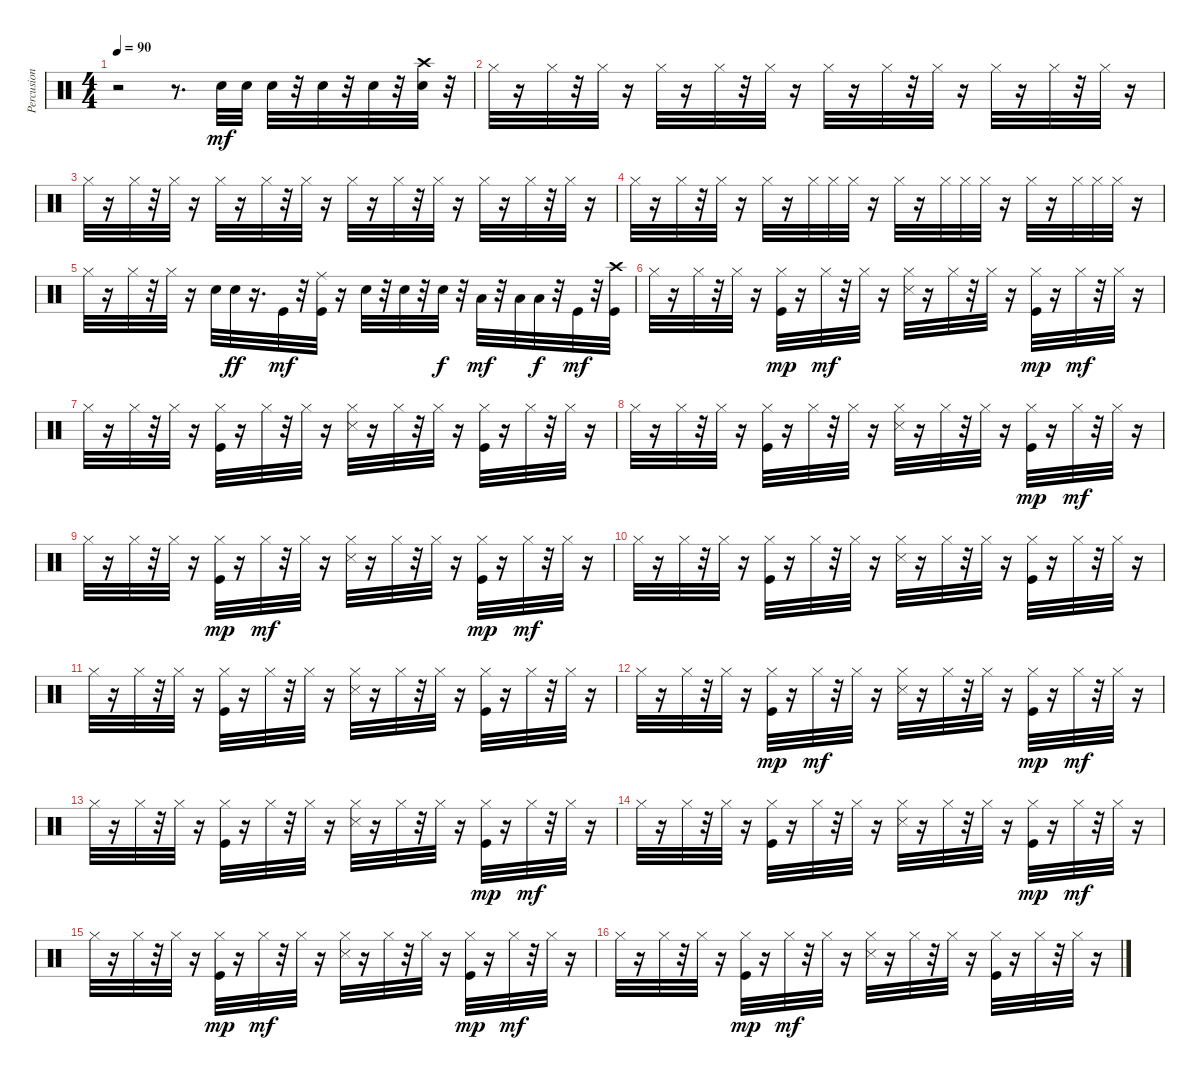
\track ("Percusion" "Percusion") {instrument percussion}
\staff {score}
\articulation defaults
\ts (4 4)
\tempo 90
\clef neutral
\ks c
r.2{dy mf} r.8{d} "Snare (hit) 2".32 "Snare (hit) 2".32 "Snare (hit) 2".32 r.32 "Snare (hit) 2".32 r.32 "Snare (hit) 2".32 r.32 ("Snare (hit) 2" "Crash high (hit)").32 r.32 |
"Hi-Hat (closed)".32 r.16 "Hi-Hat (closed)".32 r.32 "Hi-Hat (closed)".32 r.16 "Hi-Hat (closed)".32 r.16 "Hi-Hat (closed)".32 r.32 "Hi-Hat (closed)".32 r.16 "Hi-Hat (closed)".32 r.16 "Hi-Hat (closed)".32 r.32 "Hi-Hat (closed)".32 r.16 "Hi-Hat (closed)".32 r.16 "Hi-Hat (closed)".32 r.32 "Hi-Hat (closed)".32 r.16 |
"Hi-Hat (closed)".32 r.16 "Hi-Hat (closed)".32 r.32 "Hi-Hat (closed)".32 r.16 "Hi-Hat (closed)".32 r.16 "Hi-Hat (closed)".32 r.32 "Hi-Hat (closed)".32 r.16 "Hi-Hat (closed)".32 r.16 "Hi-Hat (closed)".32 r.32 "Hi-Hat (closed)".32 r.16 "Hi-Hat (closed)".32 r.16 "Hi-Hat (closed)".32 r.32 "Hi-Hat (closed)".32 r.16 |
"Hi-Hat (closed)".32 r.16 "Hi-Hat (closed)".32 r.32 "Hi-Hat (closed)".32 r.16 "Hi-Hat (closed)".32 r.16 "Hi-Hat (closed)".32 "Hi-Hat (closed)".32 "Hi-Hat (closed)".32 r.16 "Hi-Hat (closed)".32 r.16 "Hi-Hat (closed)".32 "Hi-Hat (closed)".32 "Hi-Hat (closed)".32 r.16 "Hi-Hat (closed)".32 r.16 "Hi-Hat (closed)".32 "Hi-Hat (closed)".32 "Hi-Hat (closed)".32 r.16 |
"Hi-Hat (closed)".32 r.16 "Hi-Hat (closed)".32 r.32 "Hi-Hat (closed)".32 r.16 "Snare (hit) 2".32 "Snare (hit) 2".32{dy ff} r.16{d} "Kick (hit)".32{dy mf} r.32 ("Ride (middle)" "Kick (hit)").32 r.16 "Snare (hit) 2".32 r.32 "Snare (hit) 2".32 r.32 "Snare (hit) 2".32{dy f} r.32 "Low Tom (hit)".32{dy mf} r.32 "Low Tom (hit)".32 "Low Tom (hit)".32{dy f} r.32 "Kick (hit)".32{dy mf} r.32 ("Crash high (hit)" "Kick (hit)").32 |
"Hi-Hat (closed)".32 r.16 "Hi-Hat (closed)".32 r.32 "Hi-Hat (closed)".32 r.16 ("Hi-Hat (closed)" "Kick (hit)").32{dy mp} r.16 "Hi-Hat (closed)".32{dy mf} r.32 "Hi-Hat (closed)".32 r.16 ("Snare (side stick) 3" "Hi-Hat (closed)").32 r.16 "Hi-Hat (closed)".32 r.32 "Hi-Hat (closed)".32 r.16 ("Hi-Hat (closed)" "Kick (hit)").32{dy mp} r.16 "Hi-Hat (closed)".32{dy mf} r.32 "Hi-Hat (closed)".32 r.16 |
"Hi-Hat (closed)".32 r.16 "Hi-Hat (closed)".32 r.32 "Hi-Hat (closed)".32 r.16 ("Kick (hit)" "Hi-Hat (closed)").32 r.16 "Hi-Hat (closed)".32 r.32 "Hi-Hat (closed)".32 r.16 ("Snare (side stick) 3" "Hi-Hat (closed)").32 r.16 "Hi-Hat (closed)".32 r.32 "Hi-Hat (closed)".32 r.16 ("Kick (hit)" "Hi-Hat (closed)").32 r.16 "Hi-Hat (closed)".32 r.32 "Hi-Hat (closed)".32 r.16 |
"Hi-Hat (closed)".32 r.16 "Hi-Hat (closed)".32 r.32 "Hi-Hat (closed)".32 r.16 ("Kick (hit)" "Hi-Hat (closed)").32 r.16 "Hi-Hat (closed)".32 r.32 "Hi-Hat (closed)".32 r.16 ("Snare (side stick) 3" "Hi-Hat (closed)").32 r.16 "Hi-Hat (closed)".32 r.32 "Hi-Hat (closed)".32 r.16 ("Hi-Hat (closed)" "Kick (hit)").32{dy mp} r.16 "Hi-Hat (closed)".32{dy mf} r.32 "Hi-Hat (closed)".32 r.16 |
"Hi-Hat (closed)".32 r.16 "Hi-Hat (closed)".32 r.32 "Hi-Hat (closed)".32 r.16 ("Hi-Hat (closed)" "Kick (hit)").32{dy mp} r.16 "Hi-Hat (closed)".32{dy mf} r.32 "Hi-Hat (closed)".32 r.16 ("Snare (side stick) 3" "Hi-Hat (closed)").32 r.16 "Hi-Hat (closed)".32 r.32 "Hi-Hat (closed)".32 r.16 ("Hi-Hat (closed)" "Kick (hit)").32{dy mp} r.16 "Hi-Hat (closed)".32{dy mf} r.32 "Hi-Hat (closed)".32 r.16 |
"Hi-Hat (closed)".32 r.16 "Hi-Hat (closed)".32 r.32 "Hi-Hat (closed)".32 r.16 ("Kick (hit)" "Hi-Hat (closed)").32 r.16 "Hi-Hat (closed)".32 r.32 "Hi-Hat (closed)".32 r.16 ("Hi-Hat (closed)" "Snare (side stick) 3").32 r.16 "Hi-Hat (closed)".32 r.32 "Hi-Hat (closed)".32 r.16 ("Kick (hit)" "Hi-Hat (closed)").32 r.16 "Hi-Hat (closed)".32 r.32 "Hi-Hat (closed)".32 r.16 |
"Hi-Hat (closed)".32 r.16 "Hi-Hat (closed)".32 r.32 "Hi-Hat (closed)".32 r.16 ("Kick (hit)" "Hi-Hat (closed)").32 r.16 "Hi-Hat (closed)".32 r.32 "Hi-Hat (closed)".32 r.16 ("Hi-Hat (closed)" "Snare (side stick) 3").32 r.16 "Hi-Hat (closed)".32 r.32 "Hi-Hat (closed)".32 r.16 ("Kick (hit)" "Hi-Hat (closed)").32 r.16 "Hi-Hat (closed)".32 r.32 "Hi-Hat (closed)".32 r.16 |
"Hi-Hat (closed)".32 r.16 "Hi-Hat (closed)".32 r.32 "Hi-Hat (closed)".32 r.16 ("Hi-Hat (closed)" "Kick (hit)").32{dy mp} r.16 "Hi-Hat (closed)".32{dy mf} r.32 "Hi-Hat (closed)".32 r.16 ("Snare (side stick) 3" "Hi-Hat (closed)").32 r.16 "Hi-Hat (closed)".32 r.32 "Hi-Hat (closed)".32 r.16 ("Hi-Hat (closed)" "Kick (hit)").32{dy mp} r.16 "Hi-Hat (closed)".32{dy mf} r.32 "Hi-Hat (closed)".32 r.16 |
"Hi-Hat (closed)".32 r.16 "Hi-Hat (closed)".32 r.32 "Hi-Hat (closed)".32 r.16 ("Kick (hit)" "Hi-Hat (closed)").32 r.16 "Hi-Hat (closed)".32 r.32 "Hi-Hat (closed)".32 r.16 ("Hi-Hat (closed)" "Snare (side stick) 3").32 r.16 "Hi-Hat (closed)".32 r.32 "Hi-Hat (closed)".32 r.16 ("Hi-Hat (closed)" "Kick (hit)").32{dy mp} r.16 "Hi-Hat (closed)".32{dy mf} r.32 "Hi-Hat (closed)".32 r.16 |
"Hi-Hat (closed)".32 r.16 "Hi-Hat (closed)".32 r.32 "Hi-Hat (closed)".32 r.16 ("Kick (hit)" "Hi-Hat (closed)").32 r.16 "Hi-Hat (closed)".32 r.32 "Hi-Hat (closed)".32 r.16 ("Snare (side stick) 3" "Hi-Hat (closed)").32 r.16 "Hi-Hat (closed)".32 r.32 "Hi-Hat (closed)".32 r.16 ("Hi-Hat (closed)" "Kick (hit)").32{dy mp} r.16 "Hi-Hat (closed)".32{dy mf} r.32 "Hi-Hat (closed)".32 r.16 |
"Hi-Hat (closed)".32 r.16 "Hi-Hat (closed)".32 r.32 "Hi-Hat (closed)".32 r.16 ("Hi-Hat (closed)" "Kick (hit)").32{dy mp} r.16 "Hi-Hat (closed)".32{dy mf} r.32 "Hi-Hat (closed)".32 r.16 ("Snare (side stick) 3" "Hi-Hat (closed)").32 r.16 "Hi-Hat (closed)".32 r.32 "Hi-Hat (closed)".32 r.16 ("Hi-Hat (closed)" "Kick (hit)").32{dy mp} r.16 "Hi-Hat (closed)".32{dy mf} r.32 "Hi-Hat (closed)".32 r.16 |
"Hi-Hat (closed)".32 r.16 "Hi-Hat (closed)".32 r.32 "Hi-Hat (closed)".32 r.16 ("Hi-Hat (closed)" "Kick (hit)").32{dy mp} r.16 "Hi-Hat (closed)".32{dy mf} r.32 "Hi-Hat (closed)".32 r.16 ("Snare (side stick) 3" "Hi-Hat (closed)").32 r.16 "Hi-Hat (closed)".32 r.32 "Hi-Hat (closed)".32 r.16 ("Kick (hit)" "Hi-Hat (closed)").32 r.16 "Hi-Hat (closed)".32 r.32 "Hi-Hat (closed)".32 r.16
